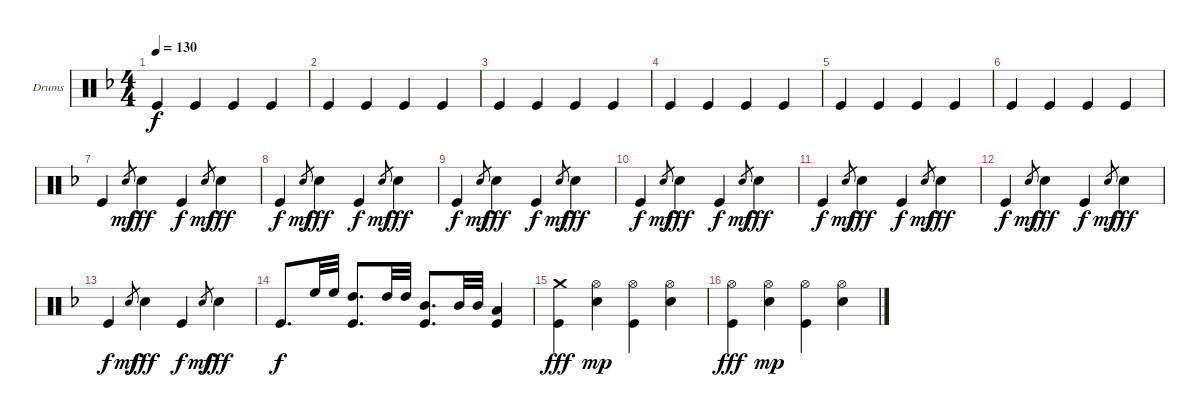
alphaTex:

\bracketExtendMode groupsimilarinstruments
\firstSystemTrackNameOrientation horizontal
\otherSystemsTrackNameOrientation horizontal
\track ("Александр Манякин" "Drums") {instrument percussion}
\staff {score}
\articulation defaults
\ts (4 4)
\tempo 130
\clef neutral
\ks f "Kick (hit)".4{dy f} "Kick (hit)".4 "Kick (hit)".4 "Kick (hit)".4
|
"Kick (hit)".4 "Kick (hit)".4 "Kick (hit)".4 "Kick (hit)".4 |
"Kick (hit)".4 "Kick (hit)".4 "Kick (hit)".4 "Kick (hit)".4 |
"Kick (hit)".4 "Kick (hit)".4 "Kick (hit)".4 "Kick (hit)".4 |
"Kick (hit)".4 "Kick (hit)".4 "Kick (hit)".4 "Kick (hit)".4 |
"Kick (hit)".4 "Kick (hit)".4 "Kick (hit)".4 "Kick (hit)".4 |
"Kick (hit)".4 "Snare (hit) 2".8{gr dy mf} "Snare (hit) 2".4{dy fff} "Kick (hit)".4{dy f} "Snare (hit) 2".8{gr dy mf} "Snare (hit) 2".4{dy fff} |
"Kick (hit)".4{dy f} "Snare (hit) 2".8{gr dy mf} "Snare (hit) 2".4{dy fff} "Kick (hit)".4{dy f} "Snare (hit) 2".8{gr dy mf} "Snare (hit) 2".4{dy fff} |
"Kick (hit)".4{dy f} "Snare (hit) 2".8{gr dy mf} "Snare (hit) 2".4{dy fff} "Kick (hit)".4{dy f} "Snare (hit) 2".8{gr dy mf} "Snare (hit) 2".4{dy fff} |
"Kick (hit)".4{dy f} "Snare (hit) 2".8{gr dy mf} "Snare (hit) 2".4{dy fff} "Kick (hit)".4{dy f} "Snare (hit) 2".8{gr dy mf} "Snare (hit) 2".4{dy fff} |
"Kick (hit)".4{dy f} "Snare (hit) 2".8{gr dy mf} "Snare (hit) 2".4{dy fff} "Kick (hit)".4{dy f} "Snare (hit) 2".8{gr dy mf} "Snare (hit) 2".4{dy fff} |
"Kick (hit)".4{dy f} "Snare (hit) 2".8{gr dy mf} "Snare (hit) 2".4{dy fff} "Kick (hit)".4{dy f} "Snare (hit) 2".8{gr dy mf} "Snare (hit) 2".4{dy fff} |
"Kick (hit)".4{dy f} "Snare (hit) 2".8{gr dy mf} "Snare (hit) 2".4{dy fff} "Kick (hit)".4{dy f} "Snare (hit) 2".8{gr dy mf} "Snare (hit) 2".4{dy fff} |
"Kick (hit)".8{d dy f} "High Floor Tom (hit)".32 "High Floor Tom (hit)".32 ("High Tom (hit)" "Kick (hit)").8{d} "High Tom (hit)".32 "High Tom (hit)".32 ("Mid Tom (hit)" "Kick (hit)").8{d} "Mid Tom (hit)".32 "Mid Tom (hit)".32 ("Low Tom (hit)" "Kick (hit)").4 |
("Crash medium (hit)" "Kick (hit)").4{dy fff} ("Hi-Hat (open)" "Snare (hit) 2").4{dy mp} ("Hi-Hat (open)" "Kick (hit)").4 ("Hi-Hat (open)" "Snare (hit) 2").4 |
("Hi-Hat (open)" "Kick (hit)").4{dy fff} ("Hi-Hat (open)" "Snare (hit) 2").4{dy mp} ("Hi-Hat (open)" "Kick (hit)").4 ("Hi-Hat (open)" "Snare (hit) 2").4
